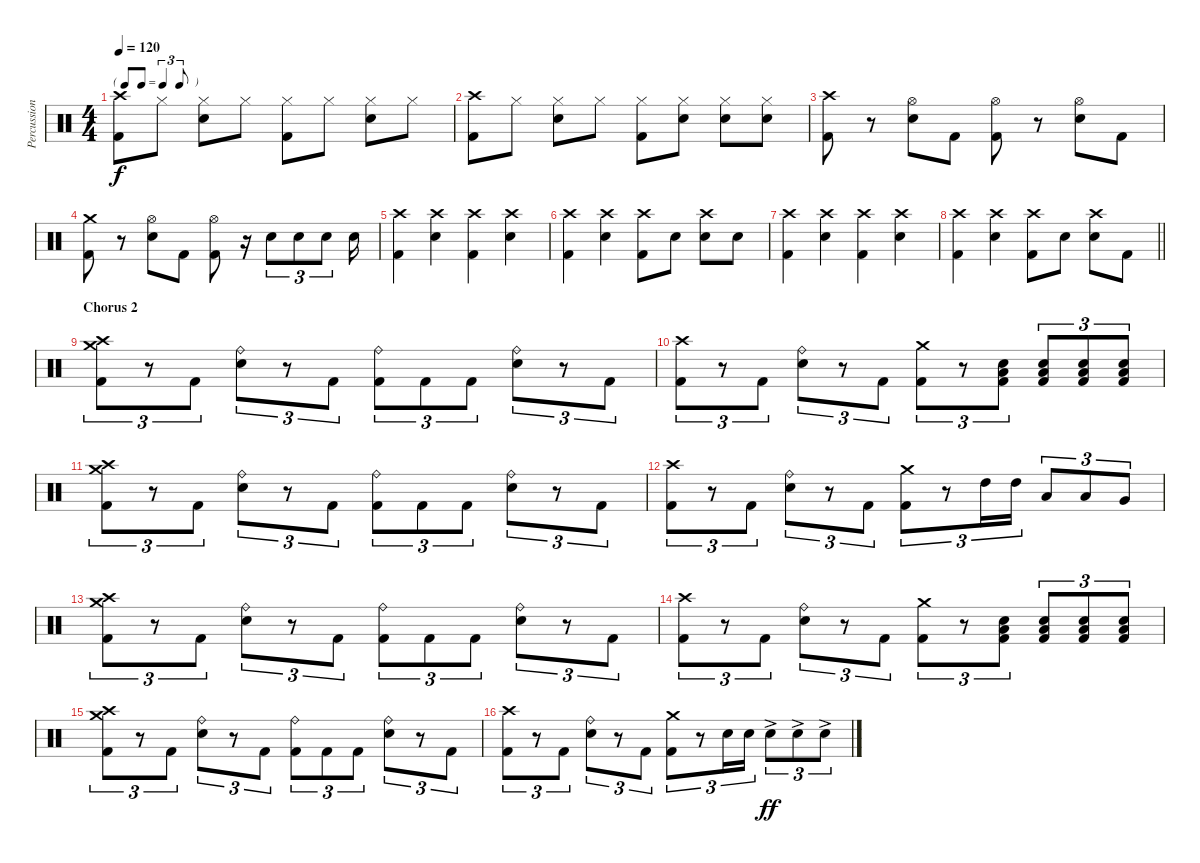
\track ("Percussion" "Percussion") {instrument percussion}
\staff {score}
\articulation defaults
\ts (4 4)
\tf triplet8th
\tempo 120
\clef neutral
\ks c
("Crash high (hit)" "Kick (hit) 2").8{dy f} "Hi-Hat (closed)".8 ("Hi-Hat (closed)" "Snare (hit) 2").8 "Hi-Hat (closed)".8 ("Hi-Hat (closed)" "Kick (hit) 2").8 "Hi-Hat (closed)".8 ("Hi-Hat (closed)" "Snare (hit) 2").8 "Hi-Hat (closed)".8 |
("Crash high (hit)" "Kick (hit) 2").8 "Hi-Hat (closed)".8 ("Hi-Hat (closed)" "Snare (hit) 2").8 "Hi-Hat (closed)".8 ("Hi-Hat (closed)" "Kick (hit) 2").8 ("Hi-Hat (closed)" "Snare (hit) 2").8 ("Hi-Hat (closed)" "Snare (hit) 2").8 ("Hi-Hat (closed)" "Snare (hit) 2").8 |
("Crash high (hit)" "Kick (hit) 2").8 r.8 ("Hi-Hat (open)" "Snare (hit) 2").8 "Kick (hit) 2".8 ("Hi-Hat (open)" "Kick (hit) 2").8 r.8 ("Hi-Hat (open)" "Snare (hit) 2").8 "Kick (hit) 2".8 |
("Crash medium (hit)" "Kick (hit) 2").8 r.8 ("Hi-Hat (open)" "Snare (hit) 2").8 "Kick (hit) 2".8 ("Hi-Hat (open)" "Kick (hit) 2").8 r.16 "Snare (hit) 2".8{tu (3 2)} "Snare (hit) 2".8{tu (3 2)} "Snare (hit) 2".8{tu (3 2)} "Snare (hit) 2".16 |
("Crash high (hit)" "Kick (hit) 2").4 ("Crash high (hit)" "Snare (hit) 2").4 ("Crash high (hit)" "Kick (hit) 2").4 ("Crash high (hit)" "Snare (hit) 2").4 |
("Crash high (hit)" "Kick (hit) 2").4 ("Crash high (hit)" "Snare (hit) 2").4 ("Crash high (hit)" "Kick (hit) 2").8 "Snare (hit) 2".8 ("Crash high (hit)" "Snare (hit) 2").8 "Snare (hit) 2".8 |
("Crash high (hit)" "Kick (hit) 2").4 ("Crash high (hit)" "Snare (hit) 2").4 ("Crash high (hit)" "Kick (hit) 2").4 ("Crash high (hit)" "Snare (hit) 2").4 |
\barLineRight lightlight
("Crash high (hit)" "Kick (hit) 2").4 ("Crash high (hit)" "Snare (hit) 2").4 ("Crash high (hit)" "Kick (hit) 2").8 "Snare (hit) 2".8 ("Crash high (hit)" "Snare (hit) 2").8 "Kick (hit) 2".8 |
\section ("" "Chorus 2")
("Crash high (hit)" "Crash medium (hit)" "Kick (hit) 2").8{tu (3 2)} r.8{tu (3 2)} "Kick (hit) 2".8{tu (3 2)} ("Ride (bell)" "Snare (hit) 2").8{tu (3 2)} r.8{tu (3 2)} "Kick (hit) 2".8{tu (3 2)} ("Ride (bell)" "Kick (hit) 2").8{tu (3 2)} "Kick (hit) 2".8{tu (3 2)} "Kick (hit) 2".8{tu (3 2)} ("Ride (bell)" "Snare (hit) 2").8{tu (3 2)} r.8{tu (3 2)} "Kick (hit) 2".8{tu (3 2)} |
("Crash high (hit)" "Kick (hit) 2").8{tu (3 2)} r.8{tu (3 2)} "Kick (hit) 2".8{tu (3 2)} ("Ride (bell)" "Snare (hit) 2").8{tu (3 2)} r.8{tu (3 2)} "Kick (hit) 2".8{tu (3 2)} ("Crash medium (hit)" "Kick (hit) 2").8{tu (3 2)} r.8{tu (3 2)} ("Low Floor Tom (hit)" "Snare (hit) 2" "Kick (hit) 2").8{tu (3 2)} ("Low Floor Tom (hit)" "Snare (hit) 2" "Kick (hit) 2").8{tu (3 2)} ("Low Floor Tom (hit)" "Snare (hit) 2" "Kick (hit) 2").8{tu (3 2)} ("Low Floor Tom (hit)" "Snare (hit) 2" "Kick (hit) 2").8{tu (3 2)} |
("Crash high (hit)" "Crash medium (hit)" "Kick (hit) 2").8{tu (3 2)} r.8{tu (3 2)} "Kick (hit) 2".8{tu (3 2)} ("Ride (bell)" "Snare (hit) 2").8{tu (3 2)} r.8{tu (3 2)} "Kick (hit) 2".8{tu (3 2)} ("Ride (bell)" "Kick (hit) 2").8{tu (3 2)} "Kick (hit) 2".8{tu (3 2)} "Kick (hit) 2".8{tu (3 2)} ("Ride (bell)" "Snare (hit) 2").8{tu (3 2)} r.8{tu (3 2)} "Kick (hit) 2".8{tu (3 2)} |
("Crash high (hit)" "Kick (hit) 2").8{tu (3 2)} r.8{tu (3 2)} "Kick (hit) 2".8{tu (3 2)} ("Ride (bell)" "Snare (hit) 2").8{tu (3 2)} r.8{tu (3 2)} "Kick (hit) 2".8{tu (3 2)} ("Crash medium (hit)" "Kick (hit) 2").8{tu (3 2)} r.8{tu (3 2)} "High Tom (hit)".16{tu (3 2)} "High Tom (hit)".16{tu (3 2)} "Low Tom (hit)".8{tu (3 2)} "Low Tom (hit)".8{tu (3 2)} "Very Low Tom (hit)".8{tu (3 2)} |
("Crash high (hit)" "Crash medium (hit)" "Kick (hit) 2").8{tu (3 2)} r.8{tu (3 2)} "Kick (hit) 2".8{tu (3 2)} ("Ride (bell)" "Snare (hit) 2").8{tu (3 2)} r.8{tu (3 2)} "Kick (hit) 2".8{tu (3 2)} ("Ride (bell)" "Kick (hit) 2").8{tu (3 2)} "Kick (hit) 2".8{tu (3 2)} "Kick (hit) 2".8{tu (3 2)} ("Ride (bell)" "Snare (hit) 2").8{tu (3 2)} r.8{tu (3 2)} "Kick (hit) 2".8{tu (3 2)} |
("Crash high (hit)" "Kick (hit) 2").8{tu (3 2)} r.8{tu (3 2)} "Kick (hit) 2".8{tu (3 2)} ("Ride (bell)" "Snare (hit) 2").8{tu (3 2)} r.8{tu (3 2)} "Kick (hit) 2".8{tu (3 2)} ("Crash medium (hit)" "Kick (hit) 2").8{tu (3 2)} r.8{tu (3 2)} ("Low Floor Tom (hit)" "Snare (hit) 2" "Kick (hit) 2").8{tu (3 2)} ("Low Floor Tom (hit)" "Snare (hit) 2" "Kick (hit) 2").8{tu (3 2)} ("Low Floor Tom (hit)" "Snare (hit) 2" "Kick (hit) 2").8{tu (3 2)} ("Low Floor Tom (hit)" "Snare (hit) 2" "Kick (hit) 2").8{tu (3 2)} |
("Crash high (hit)" "Crash medium (hit)" "Kick (hit) 2").8{tu (3 2)} r.8{tu (3 2)} "Kick (hit) 2".8{tu (3 2)} ("Ride (bell)" "Snare (hit) 2").8{tu (3 2)} r.8{tu (3 2)} "Kick (hit) 2".8{tu (3 2)} ("Ride (bell)" "Kick (hit) 2").8{tu (3 2)} "Kick (hit) 2".8{tu (3 2)} "Kick (hit) 2".8{tu (3 2)} ("Ride (bell)" "Snare (hit) 2").8{tu (3 2)} r.8{tu (3 2)} "Kick (hit) 2".8{tu (3 2)} |
("Crash high (hit)" "Kick (hit) 2").8{tu (3 2)} r.8{tu (3 2)} "Kick (hit) 2".8{tu (3 2)} ("Ride (bell)" "Snare (hit) 2").8{tu (3 2)} r.8{tu (3 2)} "Kick (hit) 2".8{tu (3 2)} ("Crash medium (hit)" "Kick (hit) 2").8{tu (3 2)} r.8{tu (3 2)} "Snare (hit) 2".16{tu (3 2)} "Snare (hit) 2".16{tu (3 2)} "Snare (hit) 2"{ac}.8{tu (3 2) dy ff} "Snare (hit) 2"{ac}.8{tu (3 2)} "Snare (hit) 2"{ac}.8{tu (3 2)}
